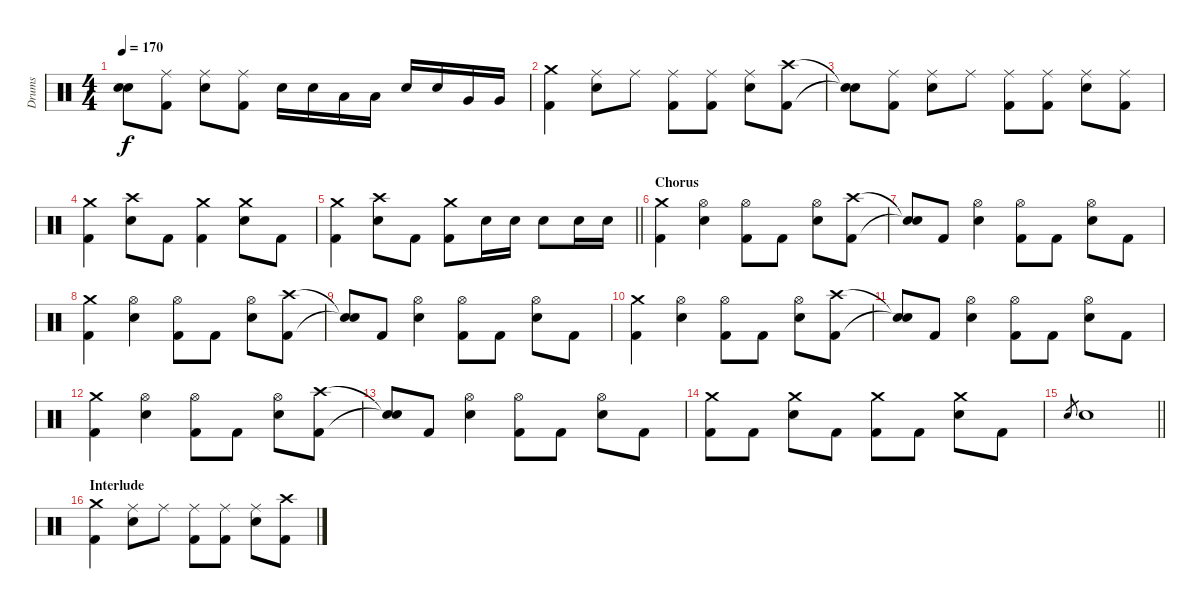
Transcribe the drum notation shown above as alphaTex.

\track ("Drums" "Drums") {instrument percussion}
\staff {score}
\articulation defaults
\ts (4 4)
\tempo 170
\clef neutral
\ks c
("Snare (hit)"{t} "Snare (hit)"{t}).8{dy f} ("Ride (middle)" "Kick (hit) 2").8 ("Ride (middle)" "Electric Snare (hit)").8 ("Ride (middle)" "Kick (hit) 2").8 "Electric Snare (hit)".16 "Electric Snare (hit)".16 "Low Tom (hit)".16 "Low Tom (hit)".16 "Electric Snare (hit)".16 "Electric Snare (hit)".16 "Very Low Tom (hit)".16 "Very Low Tom (hit)".16 |
("Crash medium (hit)" "Kick (hit) 2").4 ("Ride (middle)" "Electric Snare (hit)").8 "Ride (middle)".8 ("Ride (middle)" "Kick (hit) 2").8 ("Ride (middle)" "Kick (hit) 2").8 ("Ride (middle)" "Electric Snare (hit)").8 ("Crash high (hit)" "Kick (hit) 2").8 |
("Snare (hit)"{t} "Snare (hit)"{t}).8 ("Ride (middle)" "Kick (hit) 2").8 ("Ride (middle)" "Electric Snare (hit)").8 "Ride (middle)".8 ("Ride (middle)" "Kick (hit) 2").8 ("Ride (middle)" "Kick (hit) 2").8 ("Ride (middle)" "Electric Snare (hit)").8 ("Ride (middle)" "Kick (hit) 2").8 |
("Crash medium (hit)" "Kick (hit) 2").4 ("Crash high (hit)" "Electric Snare (hit)").8 "Kick (hit) 2".8 ("Crash medium (hit)" "Kick (hit) 2").4 ("Crash medium (hit)" "Electric Snare (hit)").8 "Kick (hit) 2".8 |
\barLineRight lightlight
("Crash medium (hit)" "Kick (hit) 2").4 ("Crash high (hit)" "Electric Snare (hit)").8 "Kick (hit) 2".8 ("Crash medium (hit)" "Kick (hit) 2").8 "Electric Snare (hit)".16 "Electric Snare (hit)".16 "Electric Snare (hit)".8 "Electric Snare (hit)".16 "Electric Snare (hit)".16 |
\section ("" "Chorus")
("Crash medium (hit)" "Kick (hit) 2").4 ("Hi-Hat (open)" "Electric Snare (hit)").4 ("Hi-Hat (open)" "Kick (hit) 2").8 "Kick (hit) 2".8 ("Hi-Hat (open)" "Electric Snare (hit)").8 ("Crash high (hit)" "Kick (hit) 2").8 |
("Snare (hit)"{t} "Snare (hit)"{t}).8 "Kick (hit) 2".8 ("Hi-Hat (open)" "Electric Snare (hit)").4 ("Hi-Hat (open)" "Kick (hit) 2").8 "Kick (hit) 2".8 ("Hi-Hat (open)" "Electric Snare (hit)").8 "Kick (hit) 2".8 |
("Crash medium (hit)" "Kick (hit) 2").4 ("Hi-Hat (open)" "Electric Snare (hit)").4 ("Hi-Hat (open)" "Kick (hit) 2").8 "Kick (hit) 2".8 ("Hi-Hat (open)" "Electric Snare (hit)").8 ("Crash high (hit)" "Kick (hit) 2").8 |
("Snare (hit)"{t} "Snare (hit)"{t}).8 "Kick (hit) 2".8 ("Hi-Hat (open)" "Electric Snare (hit)").4 ("Hi-Hat (open)" "Kick (hit) 2").8 "Kick (hit) 2".8 ("Hi-Hat (open)" "Electric Snare (hit)").8 "Kick (hit) 2".8 |
("Crash medium (hit)" "Kick (hit) 2").4 ("Hi-Hat (open)" "Electric Snare (hit)").4 ("Hi-Hat (open)" "Kick (hit) 2").8 "Kick (hit) 2".8 ("Hi-Hat (open)" "Electric Snare (hit)").8 ("Crash high (hit)" "Kick (hit) 2").8 |
("Snare (hit)"{t} "Snare (hit)"{t}).8 "Kick (hit) 2".8 ("Hi-Hat (open)" "Electric Snare (hit)").4 ("Hi-Hat (open)" "Kick (hit) 2").8 "Kick (hit) 2".8 ("Hi-Hat (open)" "Electric Snare (hit)").8 "Kick (hit) 2".8 |
("Crash medium (hit)" "Kick (hit) 2").4 ("Hi-Hat (open)" "Electric Snare (hit)").4 ("Hi-Hat (open)" "Kick (hit) 2").8 "Kick (hit) 2".8 ("Hi-Hat (open)" "Electric Snare (hit)").8 ("Crash high (hit)" "Kick (hit) 2").8 |
("Snare (hit)"{t} "Snare (hit)"{t}).8 "Kick (hit) 2".8 ("Hi-Hat (open)" "Electric Snare (hit)").4 ("Hi-Hat (open)" "Kick (hit) 2").8 "Kick (hit) 2".8 ("Hi-Hat (open)" "Electric Snare (hit)").8 "Kick (hit) 2".8 |
("Crash medium (hit)" "Kick (hit) 2").8 "Kick (hit) 2".8 ("Crash medium (hit)" "Electric Snare (hit)").8 "Kick (hit) 2".8 ("Crash medium (hit)" "Kick (hit) 2").8 "Kick (hit) 2".8 ("Crash medium (hit)" "Electric Snare (hit)").8 "Kick (hit) 2".8 |
\barLineRight lightlight "Electric Snare (hit)".8{gr} "Electric Snare (hit)".1
|
\section ("" "Interlude")
("Crash medium (hit)" "Kick (hit) 2").4 ("Ride (middle)" "Electric Snare (hit)").8 "Ride (middle)".8 ("Ride (middle)" "Kick (hit) 2").8 ("Ride (middle)" "Kick (hit) 2").8 ("Ride (middle)" "Electric Snare (hit)").8 ("Crash high (hit)" "Kick (hit) 2").8
